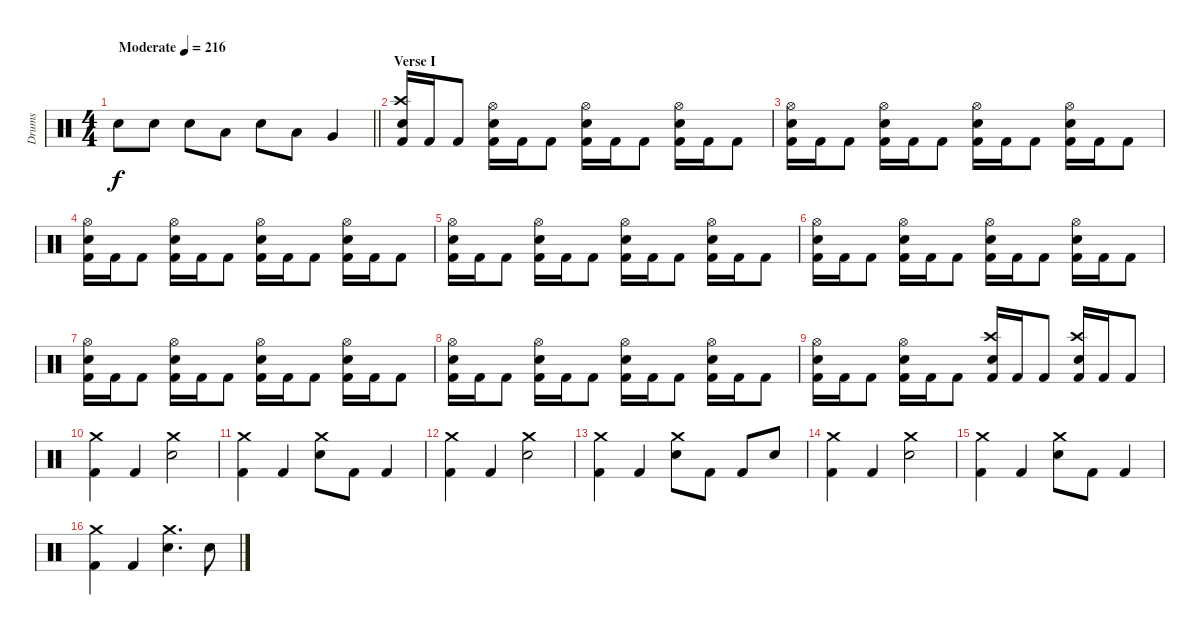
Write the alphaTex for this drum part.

\track ("Drums" "Drums") {instrument percussion}
\staff {score}
\articulation defaults
\ts (4 4)
\tempo (216 "Moderate")
\clef neutral
\barLineRight lightlight
\ks c "Snare (hit) 2".8{dy f} "Snare (hit) 2".8 "Snare (hit) 2".8 "Low Tom (hit)".8 "Snare (hit) 2".8 "Low Tom (hit)".8 "Very Low Tom (hit)".4
|
\section ("" "Verse I")
("Crash high (hit)" "Snare (hit) 2" "Kick (hit) 2").16 "Kick (hit) 2".16 "Kick (hit) 2".8 ("Hi-Hat (open)" "Snare (hit) 2" "Kick (hit) 2").16 "Kick (hit) 2".16 "Kick (hit) 2".8 ("Hi-Hat (open)" "Snare (hit) 2" "Kick (hit) 2").16 "Kick (hit) 2".16 "Kick (hit) 2".8 ("Hi-Hat (open)" "Snare (hit) 2" "Kick (hit) 2").16 "Kick (hit) 2".16 "Kick (hit) 2".8 |
("Hi-Hat (open)" "Snare (hit) 2" "Kick (hit) 2").16 "Kick (hit) 2".16 "Kick (hit) 2".8 ("Hi-Hat (open)" "Snare (hit) 2" "Kick (hit) 2").16 "Kick (hit) 2".16 "Kick (hit) 2".8 ("Hi-Hat (open)" "Snare (hit) 2" "Kick (hit) 2").16 "Kick (hit) 2".16 "Kick (hit) 2".8 ("Hi-Hat (open)" "Snare (hit) 2" "Kick (hit) 2").16 "Kick (hit) 2".16 "Kick (hit) 2".8 |
("Hi-Hat (open)" "Snare (hit) 2" "Kick (hit) 2").16 "Kick (hit) 2".16 "Kick (hit) 2".8 ("Hi-Hat (open)" "Snare (hit) 2" "Kick (hit) 2").16 "Kick (hit) 2".16 "Kick (hit) 2".8 ("Hi-Hat (open)" "Snare (hit) 2" "Kick (hit) 2").16 "Kick (hit) 2".16 "Kick (hit) 2".8 ("Hi-Hat (open)" "Snare (hit) 2" "Kick (hit) 2").16 "Kick (hit) 2".16 "Kick (hit) 2".8 |
("Hi-Hat (open)" "Snare (hit) 2" "Kick (hit) 2").16 "Kick (hit) 2".16 "Kick (hit) 2".8 ("Hi-Hat (open)" "Snare (hit) 2" "Kick (hit) 2").16 "Kick (hit) 2".16 "Kick (hit) 2".8 ("Hi-Hat (open)" "Snare (hit) 2" "Kick (hit) 2").16 "Kick (hit) 2".16 "Kick (hit) 2".8 ("Hi-Hat (open)" "Snare (hit) 2" "Kick (hit) 2").16 "Kick (hit) 2".16 "Kick (hit) 2".8 |
("Hi-Hat (open)" "Snare (hit) 2" "Kick (hit) 2").16 "Kick (hit) 2".16 "Kick (hit) 2".8 ("Hi-Hat (open)" "Snare (hit) 2" "Kick (hit) 2").16 "Kick (hit) 2".16 "Kick (hit) 2".8 ("Hi-Hat (open)" "Snare (hit) 2" "Kick (hit) 2").16 "Kick (hit) 2".16 "Kick (hit) 2".8 ("Hi-Hat (open)" "Snare (hit) 2" "Kick (hit) 2").16 "Kick (hit) 2".16 "Kick (hit) 2".8 |
("Hi-Hat (open)" "Snare (hit) 2" "Kick (hit) 2").16 "Kick (hit) 2".16 "Kick (hit) 2".8 ("Hi-Hat (open)" "Snare (hit) 2" "Kick (hit) 2").16 "Kick (hit) 2".16 "Kick (hit) 2".8 ("Hi-Hat (open)" "Snare (hit) 2" "Kick (hit) 2").16 "Kick (hit) 2".16 "Kick (hit) 2".8 ("Hi-Hat (open)" "Snare (hit) 2" "Kick (hit) 2").16 "Kick (hit) 2".16 "Kick (hit) 2".8 |
("Hi-Hat (open)" "Snare (hit) 2" "Kick (hit) 2").16 "Kick (hit) 2".16 "Kick (hit) 2".8 ("Hi-Hat (open)" "Snare (hit) 2" "Kick (hit) 2").16 "Kick (hit) 2".16 "Kick (hit) 2".8 ("Hi-Hat (open)" "Snare (hit) 2" "Kick (hit) 2").16 "Kick (hit) 2".16 "Kick (hit) 2".8 ("Hi-Hat (open)" "Snare (hit) 2" "Kick (hit) 2").16 "Kick (hit) 2".16 "Kick (hit) 2".8 |
("Hi-Hat (open)" "Snare (hit) 2" "Kick (hit) 2").16 "Kick (hit) 2".16 "Kick (hit) 2".8 ("Hi-Hat (open)" "Snare (hit) 2" "Kick (hit) 2").16 "Kick (hit) 2".16 "Kick (hit) 2".8 ("Crash high (hit)" "Snare (hit) 2" "Kick (hit) 2").16 "Kick (hit) 2".16 "Kick (hit) 2".8 ("Crash high (hit)" "Snare (hit) 2" "Kick (hit) 2").16 "Kick (hit) 2".16 "Kick (hit) 2".8 |
("Crash medium (hit)" "Kick (hit) 2").4 "Kick (hit) 2".4 ("Crash medium (hit)" "Snare (hit) 2").2 |
("Crash medium (hit)" "Kick (hit) 2").4 "Kick (hit) 2".4 ("Crash medium (hit)" "Snare (hit) 2").8 "Kick (hit) 2".8 "Kick (hit) 2".4 |
("Crash medium (hit)" "Kick (hit) 2").4 "Kick (hit) 2".4 ("Crash medium (hit)" "Snare (hit) 2").2 |
("Crash medium (hit)" "Kick (hit) 2").4 "Kick (hit) 2".4 ("Crash medium (hit)" "Snare (hit) 2").8 "Kick (hit) 2".8 "Kick (hit) 2".8 "Snare (hit) 2".8 |
("Crash medium (hit)" "Kick (hit) 2").4 "Kick (hit) 2".4 ("Crash medium (hit)" "Snare (hit) 2").2 |
("Crash medium (hit)" "Kick (hit) 2").4 "Kick (hit) 2".4 ("Crash medium (hit)" "Snare (hit) 2").8 "Kick (hit) 2".8 "Kick (hit) 2".4 |
("Crash medium (hit)" "Kick (hit) 2").4 "Kick (hit) 2".4 ("Crash medium (hit)" "Snare (hit) 2").4{d} "Snare (hit) 2".8
